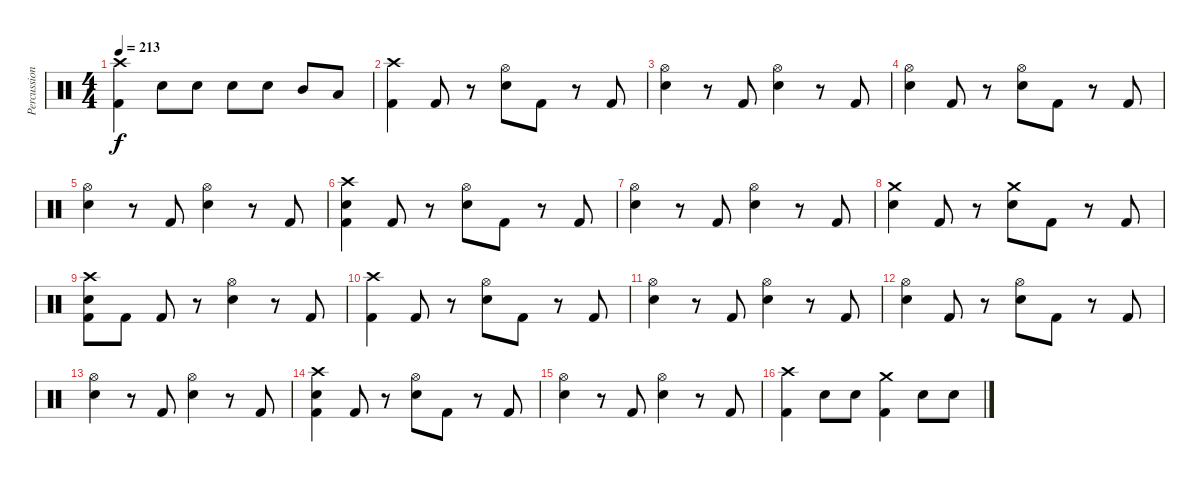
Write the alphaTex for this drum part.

\track ("Percussion" "Percussion") {instrument percussion}
\staff {score}
\articulation defaults
\ts (4 4)
\tempo 213
\clef neutral
\ks c
("Crash high (hit)" "Kick (hit) 2").4{dy f} "Electric Snare (hit)".8 "Electric Snare (hit)".8 "Electric Snare (hit)".8 "Electric Snare (hit)".8 "Mid Tom (hit)".8 "Low Tom (hit)".8 |
("Crash high (hit)" "Kick (hit) 2").4 "Kick (hit) 2".8 r.8 ("Hi-Hat (open)" "Electric Snare (hit)").8 "Kick (hit) 2".8 r.8 "Kick (hit) 2".8 |
("Hi-Hat (open)" "Electric Snare (hit)").4 r.8 "Kick (hit) 2".8 ("Hi-Hat (open)" "Electric Snare (hit)").4 r.8 "Kick (hit) 2".8 |
("Hi-Hat (open)" "Electric Snare (hit)").4 "Kick (hit) 2".8 r.8 ("Hi-Hat (open)" "Electric Snare (hit)").8 "Kick (hit) 2".8 r.8 "Kick (hit) 2".8 |
("Hi-Hat (open)" "Electric Snare (hit)").4 r.8 "Kick (hit) 2".8 ("Hi-Hat (open)" "Electric Snare (hit)").4 r.8 "Kick (hit) 2".8 |
("Crash high (hit)" "Electric Snare (hit)" "Kick (hit) 2").4 "Kick (hit) 2".8 r.8 ("Hi-Hat (open)" "Electric Snare (hit)").8 "Kick (hit) 2".8 r.8 "Kick (hit) 2".8 |
("Hi-Hat (open)" "Electric Snare (hit)").4 r.8 "Kick (hit) 2".8 ("Hi-Hat (open)" "Electric Snare (hit)").4 r.8 "Kick (hit) 2".8 |
("Crash medium (hit)" "Electric Snare (hit)").4 "Kick (hit) 2".8 r.8 ("Crash medium (hit)" "Electric Snare (hit)").8 "Kick (hit) 2".8 r.8 "Kick (hit) 2".8 |
("Crash high (hit)" "Electric Snare (hit)" "Kick (hit) 2").8 "Kick (hit) 2".8 "Kick (hit) 2".8 r.8 ("Hi-Hat (open)" "Electric Snare (hit)").4 r.8 "Kick (hit) 2".8 |
("Crash high (hit)" "Kick (hit) 2").4 "Kick (hit) 2".8 r.8 ("Hi-Hat (open)" "Electric Snare (hit)").8 "Kick (hit) 2".8 r.8 "Kick (hit) 2".8 |
("Hi-Hat (open)" "Electric Snare (hit)").4 r.8 "Kick (hit) 2".8 ("Hi-Hat (open)" "Electric Snare (hit)").4 r.8 "Kick (hit) 2".8 |
("Hi-Hat (open)" "Electric Snare (hit)").4 "Kick (hit) 2".8 r.8 ("Hi-Hat (open)" "Electric Snare (hit)").8 "Kick (hit) 2".8 r.8 "Kick (hit) 2".8 |
("Hi-Hat (open)" "Electric Snare (hit)").4 r.8 "Kick (hit) 2".8 ("Hi-Hat (open)" "Electric Snare (hit)").4 r.8 "Kick (hit) 2".8 |
("Crash high (hit)" "Electric Snare (hit)" "Kick (hit) 2").4 "Kick (hit) 2".8 r.8 ("Hi-Hat (open)" "Electric Snare (hit)").8 "Kick (hit) 2".8 r.8 "Kick (hit) 2".8 |
("Hi-Hat (open)" "Electric Snare (hit)").4 r.8 "Kick (hit) 2".8 ("Hi-Hat (open)" "Electric Snare (hit)").4 r.8 "Kick (hit) 2".8 |
("Crash high (hit)" "Kick (hit) 2").4 "Electric Snare (hit)".8 "Electric Snare (hit)".8 ("Crash medium (hit)" "Kick (hit) 2").4 "Electric Snare (hit)".8 "Electric Snare (hit)".8
